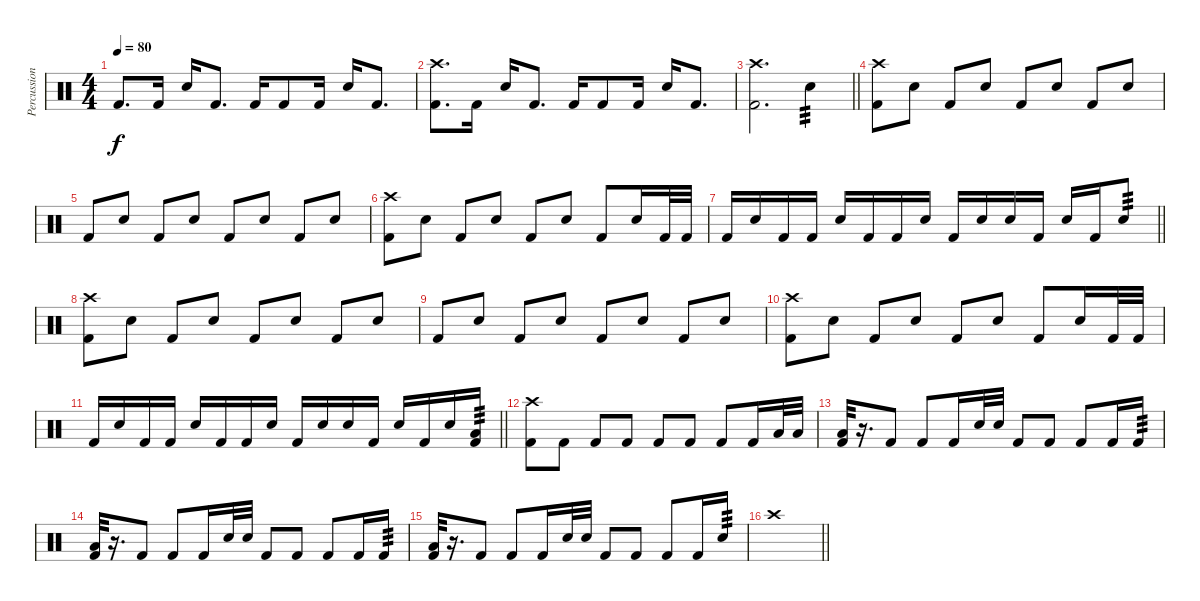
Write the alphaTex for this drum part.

\track ("Percussion" "Percussion") {instrument percussion}
\staff {score}
\articulation defaults
\ts (4 4)
\tempo 80
\clef neutral
\ks c "Kick (hit) 2".8{d dy f} "Kick (hit) 2".16 "Snare (hit) 2".16 "Kick (hit) 2".8{d} "Kick (hit) 2".16 "Kick (hit) 2".8 "Kick (hit) 2".16 "Snare (hit) 2".16 "Kick (hit) 2".8{d}
|
("Kick (hit) 2" "Crash high (hit)").8{d} "Kick (hit) 2".16 "Snare (hit) 2".16 "Kick (hit) 2".8{d} "Kick (hit) 2".16 "Kick (hit) 2".8 "Kick (hit) 2".16 "Snare (hit) 2".16 "Kick (hit) 2".8{d} |
\barLineRight lightlight
("Kick (hit) 2" "Crash high (hit)").2{d} "Snare (hit) 2".4{tp 3} |
("Kick (hit) 2" "Crash high (hit)").8 "Snare (hit) 2".8 "Kick (hit) 2".8 "Snare (hit) 2".8 "Kick (hit) 2".8 "Snare (hit) 2".8 "Kick (hit) 2".8 "Snare (hit) 2".8 |
"Kick (hit) 2".8 "Snare (hit) 2".8 "Kick (hit) 2".8 "Snare (hit) 2".8 "Kick (hit) 2".8 "Snare (hit) 2".8 "Kick (hit) 2".8 "Snare (hit) 2".8 |
("Kick (hit) 2" "Crash high (hit)").8 "Snare (hit) 2".8 "Kick (hit) 2".8 "Snare (hit) 2".8 "Kick (hit) 2".8 "Snare (hit) 2".8 "Kick (hit) 2".8 "Snare (hit) 2".16 "Kick (hit) 2".32 "Kick (hit) 2".32 |
\barLineRight lightlight "Kick (hit) 2".16 "Electric Snare (hit)".16 "Kick (hit) 2".16 "Kick (hit) 2".16 "Electric Snare (hit)".16 "Kick (hit) 2".16 "Kick (hit) 2".16 "Electric Snare (hit)".16 "Kick (hit) 2".16 "Electric Snare (hit)".16 "Electric Snare (hit)".16 "Kick (hit) 2".16 "Electric Snare (hit)".16 "Kick (hit) 2".16 "Electric Snare (hit)".8{tp 3}
|
("Kick (hit) 2" "Crash high (hit)").8 "Snare (hit) 2".8 "Kick (hit) 2".8 "Snare (hit) 2".8 "Kick (hit) 2".8 "Snare (hit) 2".8 "Kick (hit) 2".8 "Snare (hit) 2".8 |
"Kick (hit) 2".8 "Snare (hit) 2".8 "Kick (hit) 2".8 "Snare (hit) 2".8 "Kick (hit) 2".8 "Snare (hit) 2".8 "Kick (hit) 2".8 "Snare (hit) 2".8 |
("Kick (hit) 2" "Crash high (hit)").8 "Snare (hit) 2".8 "Kick (hit) 2".8 "Snare (hit) 2".8 "Kick (hit) 2".8 "Snare (hit) 2".8 "Kick (hit) 2".8 "Snare (hit) 2".16 "Kick (hit) 2".32 "Kick (hit) 2".32 |
\barLineRight lightlight "Kick (hit) 2".16 "Electric Snare (hit)".16 "Kick (hit) 2".16 "Kick (hit) 2".16 "Electric Snare (hit)".16 "Kick (hit) 2".16 "Kick (hit) 2".16 "Electric Snare (hit)".16 "Kick (hit) 2".16 "Electric Snare (hit)".16 "Electric Snare (hit)".16 "Kick (hit) 2".16 "Electric Snare (hit)".16 "Kick (hit) 2".16 "Electric Snare (hit)".16
("Kick (hit) 2" "Low Floor Tom (hit)").16{tp 3} |
("Kick (hit) 2" "Crash high (hit)").8 "Kick (hit) 2".8 "Kick (hit) 2".8 "Kick (hit) 2".8 "Kick (hit) 2".8 "Kick (hit) 2".8 "Kick (hit) 2".8 "Kick (hit) 2".16 "Low Tom (hit)".32 "Low Tom (hit)".32 |
("Kick (hit) 2" "Low Tom (hit)").32 r.16{d} "Kick (hit) 2".8 "Kick (hit) 2".8 "Kick (hit) 2".16 "Snare (hit) 2".32 "Snare (hit) 2".32 "Kick (hit) 2".8 "Kick (hit) 2".8 "Kick (hit) 2".8 "Kick (hit) 2".16 "Kick (hit) 2".16{tp 3} |
("Kick (hit) 2" "Low Tom (hit)").32 r.16{d} "Kick (hit) 2".8 "Kick (hit) 2".8 "Kick (hit) 2".16 "Electric Snare (hit)".32 "Electric Snare (hit)".32 "Kick (hit) 2".8 "Kick (hit) 2".8 "Kick (hit) 2".8 "Kick (hit) 2".16 "Kick (hit) 2".16{tp 3} |
("Kick (hit) 2" "Low Tom (hit)").32 r.16{d} "Kick (hit) 2".8 "Kick (hit) 2".8 "Kick (hit) 2".16 "Electric Snare (hit)".32 "Electric Snare (hit)".32 "Kick (hit) 2".8 "Kick (hit) 2".8 "Kick (hit) 2".8 "Kick (hit) 2".16 "Snare (hit) 2".16{tp 3} |
\barLineRight lightlight "Crash high (hit)".1
